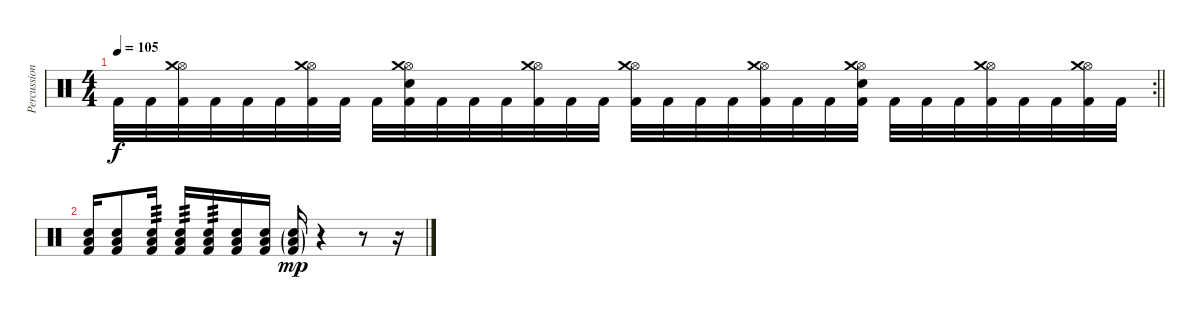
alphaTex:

\track ("Percussions" "Percussion") {instrument percussion}
\staff {score}
\articulation defaults
\rc 2
\ts (4 4)
\tempo 105
\clef neutral
\barLineRight lightlight
\ks c "Kick (hit) 2".32{dy f} "Kick (hit) 2".32
("Hi-Hat (open)" "Crash medium (hit)" "Kick (hit) 2").32 "Kick (hit) 2".32 "Kick (hit) 2".32 "Kick (hit) 2".32 ("Hi-Hat (open)" "Crash medium (hit)" "Kick (hit) 2").32 "Kick (hit) 2".32 "Kick (hit) 2".32 ("Hi-Hat (open)" "Crash medium (hit)" "Electric Snare (hit)" "Kick (hit) 2").32 "Kick (hit) 2".32 "Kick (hit) 2".32 "Kick (hit) 2".32 ("Hi-Hat (open)" "Crash medium (hit)" "Kick (hit) 2").32 "Kick (hit) 2".32 "Kick (hit) 2".32 ("Hi-Hat (open)" "Crash medium (hit)" "Kick (hit) 2").32 "Kick (hit) 2".32 "Kick (hit) 2".32 "Kick (hit) 2".32 ("Hi-Hat (open)" "Crash medium (hit)" "Kick (hit) 2").32 "Kick (hit) 2".32 "Kick (hit) 2".32 ("Hi-Hat (open)" "Crash medium (hit)" "Electric Snare (hit)" "Kick (hit) 2").32 "Kick (hit) 2".32 "Kick (hit) 2".32 "Kick (hit) 2".32 ("Hi-Hat (open)" "Crash medium (hit)" "Kick (hit) 2").32 "Kick (hit) 2".32 "Kick (hit) 2".32 ("Hi-Hat (open)" "Crash medium (hit)" "Kick (hit) 2").32 "Kick (hit) 2".32 |
("Low Floor Tom (hit)" "Electric Snare (hit)" "Kick (hit) 2").16 ("Low Floor Tom (hit)" "Electric Snare (hit)" "Kick (hit) 2").8 ("Low Floor Tom (hit)" "Electric Snare (hit)" "Kick (hit) 2").16{tp 3} ("Low Floor Tom (hit)" "Electric Snare (hit)" "Kick (hit) 2").16{tp 3} ("Low Floor Tom (hit)" "Electric Snare (hit)" "Kick (hit) 2").16{tp 3} ("Low Floor Tom (hit)" "Electric Snare (hit)" "Kick (hit) 2").16 ("Low Floor Tom (hit)" "Electric Snare (hit)" "Kick (hit) 2").16 ("Low Floor Tom (hit)"{g} "Electric Snare (hit)"{g} "Kick (hit) 2"{g}).16{dy mp} r.4 r.8 r.16
